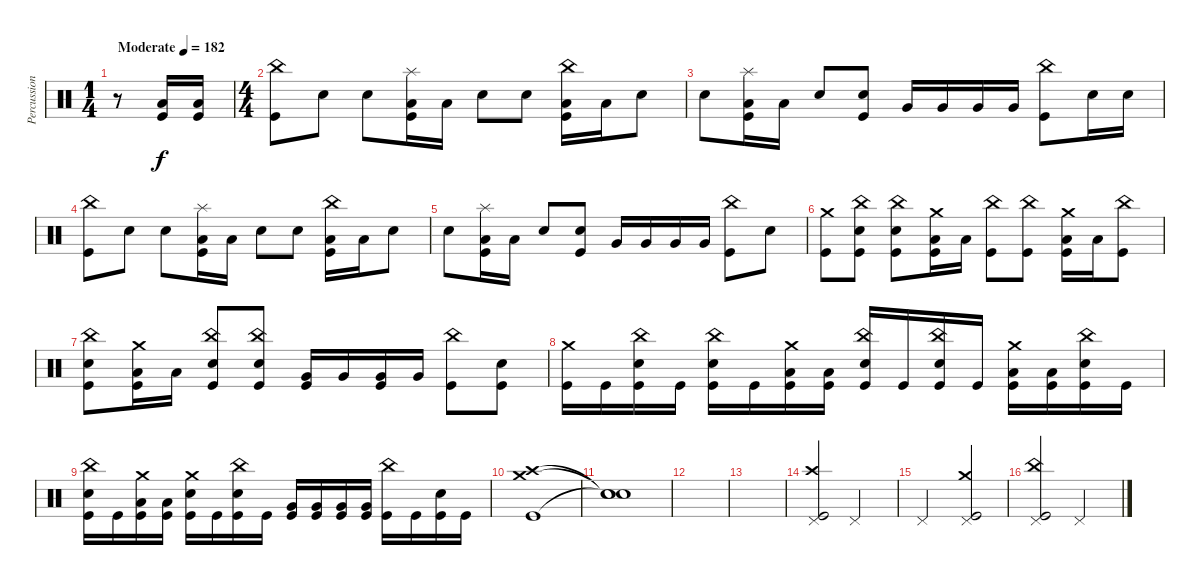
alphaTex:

\track ("Percussion" "Percussion") {instrument percussion}
\staff {score}
\articulation defaults
\ts (1 4)
\tempo (182 "Moderate")
\clef neutral
\ks c
r.8{dy f} ("Low Floor Tom (hit)" "Kick (hit)").16 ("Low Floor Tom (hit)" "Kick (hit)").16 |
\ts (4 4)
("China (hit)" "Kick (hit)").8 "Snare (hit) 2".8 "Snare (hit) 2".8 ("Splash (hit)" "Low Floor Tom (hit)" "Kick (hit)").16 "Low Floor Tom (hit)".16 "Snare (hit) 2".8 "Snare (hit) 2".8 ("China (hit)" "Low Floor Tom (hit)" "Kick (hit)").16 "Low Floor Tom (hit)".16 "Snare (hit) 2".8 |
"Snare (hit) 2".8 ("Splash (hit)" "Low Floor Tom (hit)" "Kick (hit)").16 "Low Floor Tom (hit)".16 "Snare (hit) 2".8 ("Snare (hit) 2" "Kick (hit)").8 "Very Low Tom (hit)".16 "Very Low Tom (hit)".16 "Very Low Tom (hit)".16 "Very Low Tom (hit)".16 ("China (hit)" "Kick (hit)").8 "Snare (hit) 2".16 "Snare (hit) 2".16 |
("China (hit)" "Kick (hit)").8 "Snare (hit) 2".8 "Snare (hit) 2".8 ("Splash (hit)" "Low Floor Tom (hit)" "Kick (hit)").16 "Low Floor Tom (hit)".16 "Snare (hit) 2".8 "Snare (hit) 2".8 ("China (hit)" "Low Floor Tom (hit)" "Kick (hit)").16 "Low Floor Tom (hit)".16 "Snare (hit) 2".8 |
"Snare (hit) 2".8 ("Splash (hit)" "Low Floor Tom (hit)" "Kick (hit)").16 "Low Floor Tom (hit)".16 "Snare (hit) 2".8 ("Snare (hit) 2" "Kick (hit)").8 "Very Low Tom (hit)".16 "Very Low Tom (hit)".16 "Very Low Tom (hit)".16 "Very Low Tom (hit)".16 ("China (hit)" "Kick (hit)").8 "Snare (hit) 2".8 |
("Crash medium (hit)" "Kick (hit)").8 ("China (hit)" "Snare (hit) 2" "Kick (hit)").8 ("China (hit)" "Snare (hit) 2" "Kick (hit)").8 ("Crash medium (hit)" "Low Floor Tom (hit)" "Kick (hit)").16 "Low Floor Tom (hit)".16 ("China (hit)" "Kick (hit)").8 ("China (hit)" "Kick (hit)").8 ("Crash medium (hit)" "Low Floor Tom (hit)" "Kick (hit)").16 "Low Floor Tom (hit)".16 ("China (hit)" "Kick (hit)").8 |
("China (hit)" "Snare (hit) 2" "Kick (hit)").8 ("Crash medium (hit)" "Low Floor Tom (hit)" "Kick (hit)").16 "Low Floor Tom (hit)".16 ("China (hit)" "Snare (hit) 2" "Kick (hit)").8 ("China (hit)" "Snare (hit) 2" "Kick (hit)").8 ("Very Low Tom (hit)" "Kick (hit)").16 "Very Low Tom (hit)".16 ("Very Low Tom (hit)" "Kick (hit)").16 "Very Low Tom (hit)".16 ("China (hit)" "Kick (hit)").8 ("Snare (hit) 2" "Kick (hit)").8 |
("Crash medium (hit)" "Kick (hit)").16 "Kick (hit)".16 ("China (hit)" "Snare (hit) 2" "Kick (hit)").16 "Kick (hit)".16 ("China (hit)" "Snare (hit) 2" "Kick (hit)").16 "Kick (hit)".16 ("Crash medium (hit)" "Low Floor Tom (hit)" "Kick (hit)").16 ("Low Floor Tom (hit)" "Kick (hit)").16 ("China (hit)" "Snare (hit) 2" "Kick (hit)").16 "Kick (hit)".16 ("China (hit)" "Snare (hit) 2" "Kick (hit)").16 "Kick (hit)".16 ("Crash medium (hit)" "Low Floor Tom (hit)" "Kick (hit)").16 ("Low Floor Tom (hit)" "Kick (hit)").16 ("China (hit)" "Snare (hit) 2" "Kick (hit)").16 "Kick (hit)".16 |
("China (hit)" "Snare (hit) 2" "Kick (hit)").16 "Kick (hit)".16 ("Crash medium (hit)" "Low Floor Tom (hit)" "Kick (hit)").16 ("Low Floor Tom (hit)" "Kick (hit)").16 ("Crash medium (hit)" "Snare (hit) 2" "Kick (hit)").16 "Kick (hit)".16 ("China (hit)" "Snare (hit) 2" "Kick (hit)").16 "Kick (hit)".16 ("Very Low Tom (hit)" "Kick (hit)").16 ("Very Low Tom (hit)" "Kick (hit)").16 ("Very Low Tom (hit)" "Kick (hit)").16 ("Very Low Tom (hit)" "Kick (hit)").16 ("China (hit)" "Kick (hit)").16 "Kick (hit)".16 ("Snare (hit) 2" "Kick (hit)").16 "Kick (hit)".16 |
("Crash medium (hit)" "Crash high (hit)" "Kick (hit)").1 |
("Snare (hit)"{t} "Snare (hit)"{t} "Snare (hit)"{t}).1 |
|
|
("Crash high (hit)" "Pedal Hi-Hat (hit)" "Kick (hit)").2 "Pedal Hi-Hat (hit)".2 |
"Pedal Hi-Hat (hit)".2 ("Crash medium (hit)" "Pedal Hi-Hat (hit)" "Kick (hit)").2 |
("China (hit)" "Pedal Hi-Hat (hit)" "Kick (hit)").2 "Pedal Hi-Hat (hit)".2
